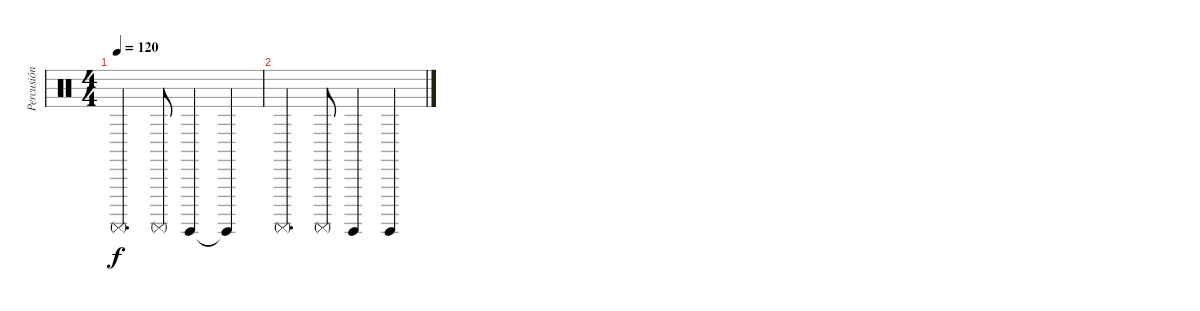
\track ("Percusión" "Percusión") {instrument percussion}
\staff {score}
\articulation defaults
\ts (4 4)
\tempo 120
\clef neutral
\ks c "Surdo (mute)".4{d dy f} "Surdo (mute)".8 "Surdo (hit)".4 "Surdo (hit)"{t}.4
|
"Surdo (mute)".4{d} "Surdo (mute)".8 "Surdo (hit)".4 "Surdo (hit)".4
